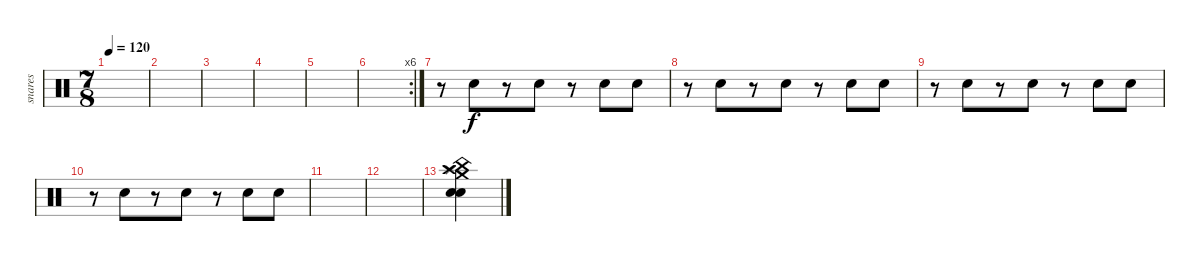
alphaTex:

\track ("snares" "snares") {instrument percussion}
\staff {score}
\articulation defaults
\ts (7 8)
\tempo 120
\clef neutral
\ks c
|
|
|
|
|
\rc 6
|
r.8 "Electric Snare (hit)".8 r.8 "Electric Snare (hit)".8 r.8 "Snare (hit) 2".8 "Snare (hit) 2".8 |
r.8 "Electric Snare (hit)".8 r.8 "Electric Snare (hit)".8 r.8 "Snare (hit) 2".8 "Snare (hit) 2".8 |
r.8 "Electric Snare (hit)".8 r.8 "Electric Snare (hit)".8 r.8 "Snare (hit) 2".8 "Snare (hit) 2".8 |
r.8 "Electric Snare (hit)".8 r.8 "Electric Snare (hit)".8 r.8 "Snare (hit) 2".8 "Snare (hit) 2".8 |
|
|
("Snare (hit) 2" "Electric Snare (hit)" "Crash medium (hit)" "China (hit)" "Splash (hit)" "Crash high (hit)").4
